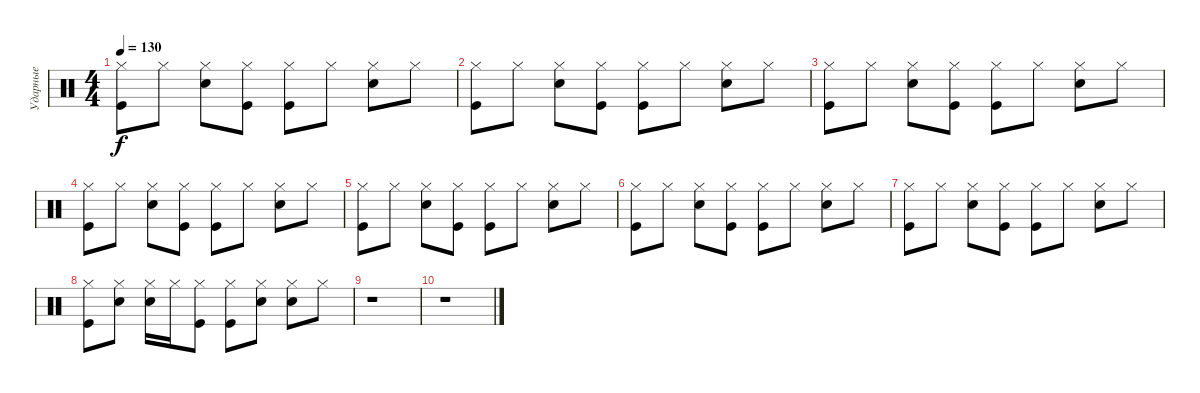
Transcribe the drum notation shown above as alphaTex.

\track ("Ударные" "Ударные") {instrument percussion}
\staff {score}
\articulation defaults
\ts (4 4)
\tempo 130
\clef neutral
\ks c
("Hi-Hat (closed)" "Kick (hit)").8{dy f} "Hi-Hat (closed)".8 ("Hi-Hat (closed)" "Snare (hit) 2").8 ("Hi-Hat (closed)" "Kick (hit)").8 ("Hi-Hat (closed)" "Kick (hit)").8 "Hi-Hat (closed)".8 ("Hi-Hat (closed)" "Snare (hit) 2").8 "Hi-Hat (closed)".8 |
("Hi-Hat (closed)" "Kick (hit)").8 "Hi-Hat (closed)".8 ("Hi-Hat (closed)" "Snare (hit) 2").8 ("Hi-Hat (closed)" "Kick (hit)").8 ("Hi-Hat (closed)" "Kick (hit)").8 "Hi-Hat (closed)".8 ("Hi-Hat (closed)" "Snare (hit) 2").8 "Hi-Hat (closed)".8 |
("Hi-Hat (closed)" "Kick (hit)").8 "Hi-Hat (closed)".8 ("Hi-Hat (closed)" "Snare (hit) 2").8 ("Hi-Hat (closed)" "Kick (hit)").8 ("Hi-Hat (closed)" "Kick (hit)").8 "Hi-Hat (closed)".8 ("Hi-Hat (closed)" "Snare (hit) 2").8 "Hi-Hat (closed)".8 |
("Hi-Hat (closed)" "Kick (hit)").8 "Hi-Hat (closed)".8 ("Hi-Hat (closed)" "Snare (hit) 2").8 ("Hi-Hat (closed)" "Kick (hit)").8 ("Hi-Hat (closed)" "Kick (hit)").8 "Hi-Hat (closed)".8 ("Hi-Hat (closed)" "Snare (hit) 2").8 "Hi-Hat (closed)".8 |
("Hi-Hat (closed)" "Kick (hit)").8 "Hi-Hat (closed)".8 ("Hi-Hat (closed)" "Snare (hit) 2").8 ("Hi-Hat (closed)" "Kick (hit)").8 ("Hi-Hat (closed)" "Kick (hit)").8 "Hi-Hat (closed)".8 ("Hi-Hat (closed)" "Snare (hit) 2").8 "Hi-Hat (closed)".8 |
("Hi-Hat (closed)" "Kick (hit)").8 "Hi-Hat (closed)".8 ("Hi-Hat (closed)" "Snare (hit) 2").8 ("Hi-Hat (closed)" "Kick (hit)").8 ("Hi-Hat (closed)" "Kick (hit)").8 "Hi-Hat (closed)".8 ("Hi-Hat (closed)" "Snare (hit) 2").8 "Hi-Hat (closed)".8 |
("Hi-Hat (closed)" "Kick (hit)").8 "Hi-Hat (closed)".8 ("Hi-Hat (closed)" "Snare (hit) 2").8 ("Hi-Hat (closed)" "Kick (hit)").8 ("Hi-Hat (closed)" "Kick (hit)").8 "Hi-Hat (closed)".8 ("Hi-Hat (closed)" "Snare (hit) 2").8 "Hi-Hat (closed)".8 |
("Hi-Hat (closed)" "Kick (hit)").8 ("Hi-Hat (closed)" "Snare (hit) 2").8 ("Hi-Hat (closed)" "Snare (hit) 2").16 "Hi-Hat (closed)".16 ("Hi-Hat (closed)" "Kick (hit)").8 ("Hi-Hat (closed)" "Kick (hit)").8 ("Hi-Hat (closed)" "Snare (hit) 2").8 ("Hi-Hat (closed)" "Snare (hit) 2").8 "Hi-Hat (closed)".8 |
r.1 |
r.1
